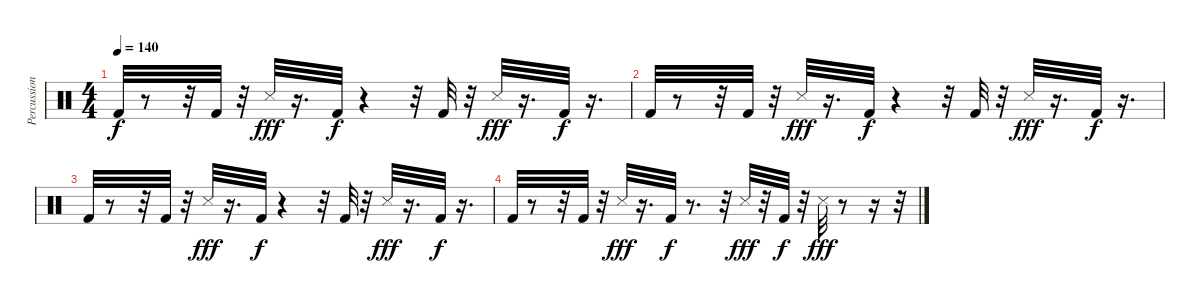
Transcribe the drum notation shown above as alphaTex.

\track ("Percussion" "Percussion") {instrument percussion}
\staff {score}
\articulation defaults
\ts (4 4)
\tempo 140
\clef neutral
\ks c "Kick (hit) 2".32{dy f}
r.8 r.32 "Kick (hit) 2".32 r.32 "Snare (side stick) 3".32{dy fff} r.16{d} "Kick (hit) 2".32{dy f} r.4 r.32 "Kick (hit) 2".32 r.32 "Snare (side stick) 3".32{dy fff} r.16{d} "Kick (hit) 2".32{dy f} r.16{d} |
"Kick (hit) 2".32 r.8 r.32 "Kick (hit) 2".32 r.32 "Snare (side stick) 3".32{dy fff} r.16{d} "Kick (hit) 2".32{dy f} r.4 r.32 "Kick (hit) 2".32 r.32 "Snare (side stick) 3".32{dy fff} r.16{d} "Kick (hit) 2".32{dy f} r.16{d} |
"Kick (hit) 2".32 r.8 r.32 "Kick (hit) 2".32 r.32 "Snare (side stick) 3".32{dy fff} r.16{d} "Kick (hit) 2".32{dy f} r.4 r.32 "Kick (hit) 2".32 r.32 "Snare (side stick) 3".32{dy fff} r.16{d} "Kick (hit) 2".32{dy f} r.16{d} |
"Kick (hit) 2".32 r.8 r.32 "Kick (hit) 2".32 r.32 "Snare (side stick) 3".32{dy fff} r.16{d} "Kick (hit) 2".32{dy f} r.8{d} r.32 "Snare (side stick) 3".32{dy fff} r.32 "Kick (hit) 2".32{dy f} r.32 "Snare (side stick) 3".32{dy fff} r.8 r.16 r.32
